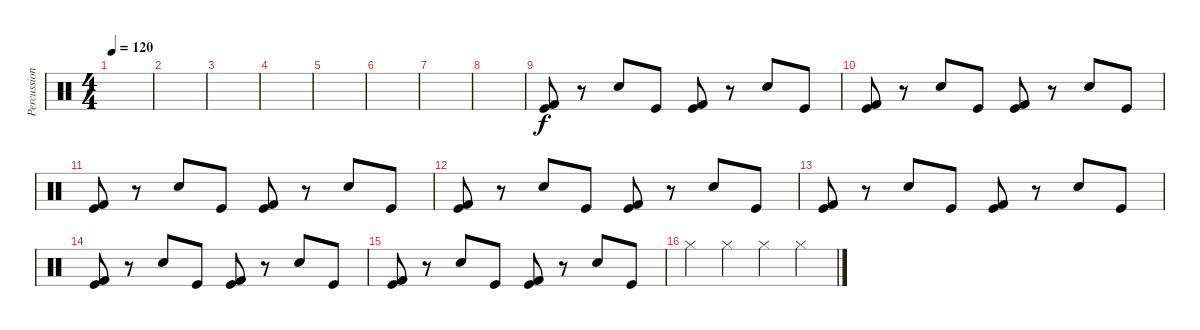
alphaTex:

\track ("Percussion" "Percussion") {instrument percussion}
\staff {score}
\articulation defaults
\ts (4 4)
\tempo 120
\clef neutral
\ks c
|
|
|
|
|
|
|
|
("Kick (hit) 2" "Kick (hit)").8 r.8 "Electric Snare (hit)".8 "Kick (hit)".8 ("Kick (hit) 2" "Kick (hit)").8 r.8 "Electric Snare (hit)".8 "Kick (hit)".8 |
("Kick (hit) 2" "Kick (hit)").8 r.8 "Electric Snare (hit)".8 "Kick (hit)".8 ("Kick (hit) 2" "Kick (hit)").8 r.8 "Electric Snare (hit)".8 "Kick (hit)".8 |
("Kick (hit) 2" "Kick (hit)").8 r.8 "Electric Snare (hit)".8 "Kick (hit)".8 ("Kick (hit) 2" "Kick (hit)").8 r.8 "Electric Snare (hit)".8 "Kick (hit)".8 |
("Kick (hit) 2" "Kick (hit)").8 r.8 "Electric Snare (hit)".8 "Kick (hit)".8 ("Kick (hit) 2" "Kick (hit)").8 r.8 "Electric Snare (hit)".8 "Kick (hit)".8 |
("Kick (hit) 2" "Kick (hit)").8 r.8 "Electric Snare (hit)".8 "Kick (hit)".8 ("Kick (hit) 2" "Kick (hit)").8 r.8 "Electric Snare (hit)".8 "Kick (hit)".8 |
("Kick (hit) 2" "Kick (hit)").8 r.8 "Electric Snare (hit)".8 "Kick (hit)".8 ("Kick (hit) 2" "Kick (hit)").8 r.8 "Electric Snare (hit)".8 "Kick (hit)".8 |
("Kick (hit) 2" "Kick (hit)").8 r.8 "Electric Snare (hit)".8 "Kick (hit)".8 ("Kick (hit) 2" "Kick (hit)").8 r.8 "Electric Snare (hit)".8 "Kick (hit)".8 |
"Hi-Hat (closed)".4 "Hi-Hat (closed)".4 "Hi-Hat (closed)".4 "Hi-Hat (closed)".4
